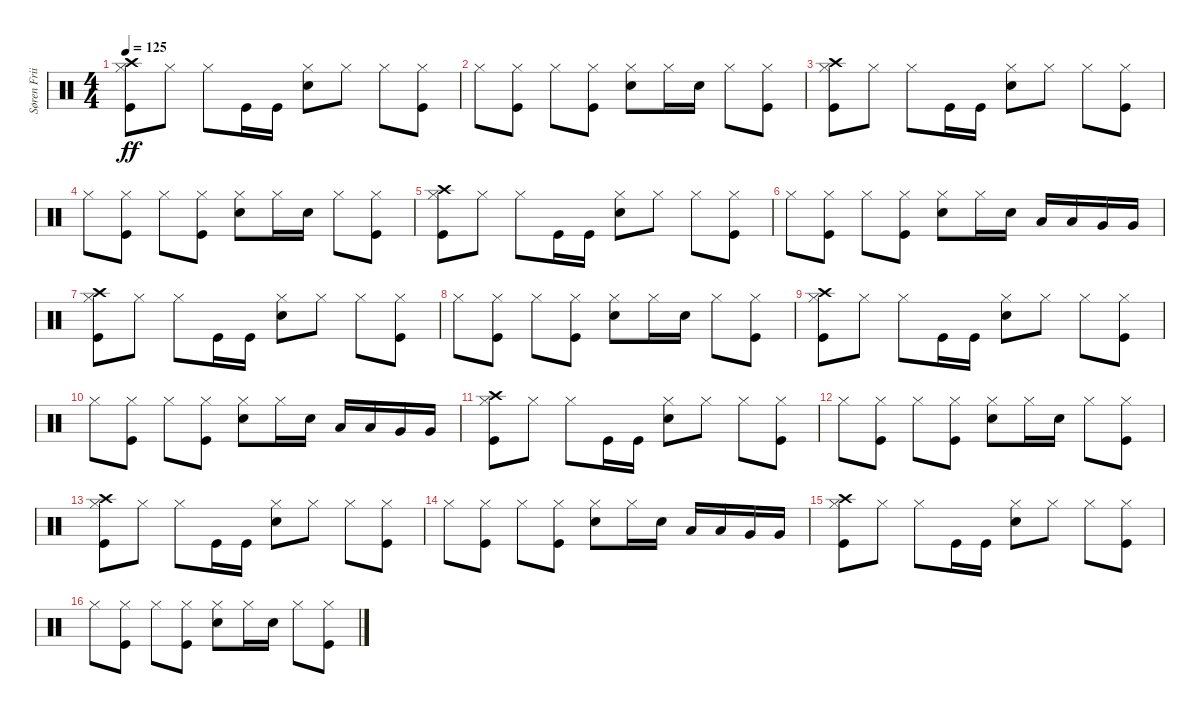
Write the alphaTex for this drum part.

\track ("Søren Friis - Drums" "Søren Frii") {instrument percussion}
\staff {score}
\articulation defaults
\ts (4 4)
\tempo 125
\clef neutral
\ks c
("Kick (hit)" "Hi-Hat (closed)" "Crash high (hit)").8{dy ff} "Hi-Hat (closed)".8 "Hi-Hat (closed)".8 "Kick (hit)".16 "Kick (hit)".16 ("Snare (hit) 2" "Hi-Hat (closed)").8 "Hi-Hat (closed)".8 "Hi-Hat (closed)".8 ("Kick (hit)" "Hi-Hat (closed)").8 |
"Hi-Hat (closed)".8 ("Kick (hit)" "Hi-Hat (closed)").8 "Hi-Hat (closed)".8 ("Kick (hit)" "Hi-Hat (closed)").8 ("Snare (hit) 2" "Hi-Hat (closed)").8 "Hi-Hat (closed)".16 "Snare (hit) 2".16 "Hi-Hat (closed)".8 ("Kick (hit)" "Hi-Hat (closed)").8 |
("Kick (hit)" "Hi-Hat (closed)" "Crash high (hit)").8 "Hi-Hat (closed)".8 "Hi-Hat (closed)".8 "Kick (hit)".16 "Kick (hit)".16 ("Snare (hit) 2" "Hi-Hat (closed)").8 "Hi-Hat (closed)".8 "Hi-Hat (closed)".8 ("Kick (hit)" "Hi-Hat (closed)").8 |
"Hi-Hat (closed)".8 ("Kick (hit)" "Hi-Hat (closed)").8 "Hi-Hat (closed)".8 ("Kick (hit)" "Hi-Hat (closed)").8 ("Snare (hit) 2" "Hi-Hat (closed)").8 "Hi-Hat (closed)".16 "Snare (hit) 2".16 "Hi-Hat (closed)".8 ("Kick (hit)" "Hi-Hat (closed)").8 |
("Kick (hit)" "Hi-Hat (closed)" "Crash high (hit)").8 "Hi-Hat (closed)".8 "Hi-Hat (closed)".8 "Kick (hit)".16 "Kick (hit)".16 ("Snare (hit) 2" "Hi-Hat (closed)").8 "Hi-Hat (closed)".8 "Hi-Hat (closed)".8 ("Kick (hit)" "Hi-Hat (closed)").8 |
"Hi-Hat (closed)".8 ("Kick (hit)" "Hi-Hat (closed)").8 "Hi-Hat (closed)".8 ("Kick (hit)" "Hi-Hat (closed)").8 ("Snare (hit) 2" "Hi-Hat (closed)").8 "Hi-Hat (closed)".16 "Snare (hit) 2".16 "Low Tom (hit)".16 "Low Tom (hit)".16 "Very Low Tom (hit)".16 "Very Low Tom (hit)".16 |
("Kick (hit)" "Hi-Hat (closed)" "Crash high (hit)").8 "Hi-Hat (closed)".8 "Hi-Hat (closed)".8 "Kick (hit)".16 "Kick (hit)".16 ("Snare (hit) 2" "Hi-Hat (closed)").8 "Hi-Hat (closed)".8 "Hi-Hat (closed)".8 ("Kick (hit)" "Hi-Hat (closed)").8 |
"Hi-Hat (closed)".8 ("Kick (hit)" "Hi-Hat (closed)").8 "Hi-Hat (closed)".8 ("Kick (hit)" "Hi-Hat (closed)").8 ("Snare (hit) 2" "Hi-Hat (closed)").8 "Hi-Hat (closed)".16 "Snare (hit) 2".16 "Hi-Hat (closed)".8 ("Kick (hit)" "Hi-Hat (closed)").8 |
("Kick (hit)" "Hi-Hat (closed)" "Crash high (hit)").8 "Hi-Hat (closed)".8 "Hi-Hat (closed)".8 "Kick (hit)".16 "Kick (hit)".16 ("Snare (hit) 2" "Hi-Hat (closed)").8 "Hi-Hat (closed)".8 "Hi-Hat (closed)".8 ("Kick (hit)" "Hi-Hat (closed)").8 |
"Hi-Hat (closed)".8 ("Kick (hit)" "Hi-Hat (closed)").8 "Hi-Hat (closed)".8 ("Kick (hit)" "Hi-Hat (closed)").8 ("Snare (hit) 2" "Hi-Hat (closed)").8 "Hi-Hat (closed)".16 "Snare (hit) 2".16 "Low Tom (hit)".16 "Low Tom (hit)".16 "Very Low Tom (hit)".16 "Very Low Tom (hit)".16 |
("Kick (hit)" "Hi-Hat (closed)" "Crash high (hit)").8 "Hi-Hat (closed)".8 "Hi-Hat (closed)".8 "Kick (hit)".16 "Kick (hit)".16 ("Snare (hit) 2" "Hi-Hat (closed)").8 "Hi-Hat (closed)".8 "Hi-Hat (closed)".8 ("Kick (hit)" "Hi-Hat (closed)").8 |
"Hi-Hat (closed)".8 ("Kick (hit)" "Hi-Hat (closed)").8 "Hi-Hat (closed)".8 ("Kick (hit)" "Hi-Hat (closed)").8 ("Snare (hit) 2" "Hi-Hat (closed)").8 "Hi-Hat (closed)".16 "Snare (hit) 2".16 "Hi-Hat (closed)".8 ("Kick (hit)" "Hi-Hat (closed)").8 |
("Kick (hit)" "Hi-Hat (closed)" "Crash high (hit)").8 "Hi-Hat (closed)".8 "Hi-Hat (closed)".8 "Kick (hit)".16 "Kick (hit)".16 ("Snare (hit) 2" "Hi-Hat (closed)").8 "Hi-Hat (closed)".8 "Hi-Hat (closed)".8 ("Kick (hit)" "Hi-Hat (closed)").8 |
"Hi-Hat (closed)".8 ("Kick (hit)" "Hi-Hat (closed)").8 "Hi-Hat (closed)".8 ("Kick (hit)" "Hi-Hat (closed)").8 ("Snare (hit) 2" "Hi-Hat (closed)").8 "Hi-Hat (closed)".16 "Snare (hit) 2".16 "Low Tom (hit)".16 "Low Tom (hit)".16 "Very Low Tom (hit)".16 "Very Low Tom (hit)".16 |
("Kick (hit)" "Hi-Hat (closed)" "Crash high (hit)").8 "Hi-Hat (closed)".8 "Hi-Hat (closed)".8 "Kick (hit)".16 "Kick (hit)".16 ("Snare (hit) 2" "Hi-Hat (closed)").8 "Hi-Hat (closed)".8 "Hi-Hat (closed)".8 ("Kick (hit)" "Hi-Hat (closed)").8 |
"Hi-Hat (closed)".8 ("Kick (hit)" "Hi-Hat (closed)").8 "Hi-Hat (closed)".8 ("Kick (hit)" "Hi-Hat (closed)").8 ("Snare (hit) 2" "Hi-Hat (closed)").8 "Hi-Hat (closed)".16 "Snare (hit) 2".16 "Hi-Hat (closed)".8 ("Kick (hit)" "Hi-Hat (closed)").8
